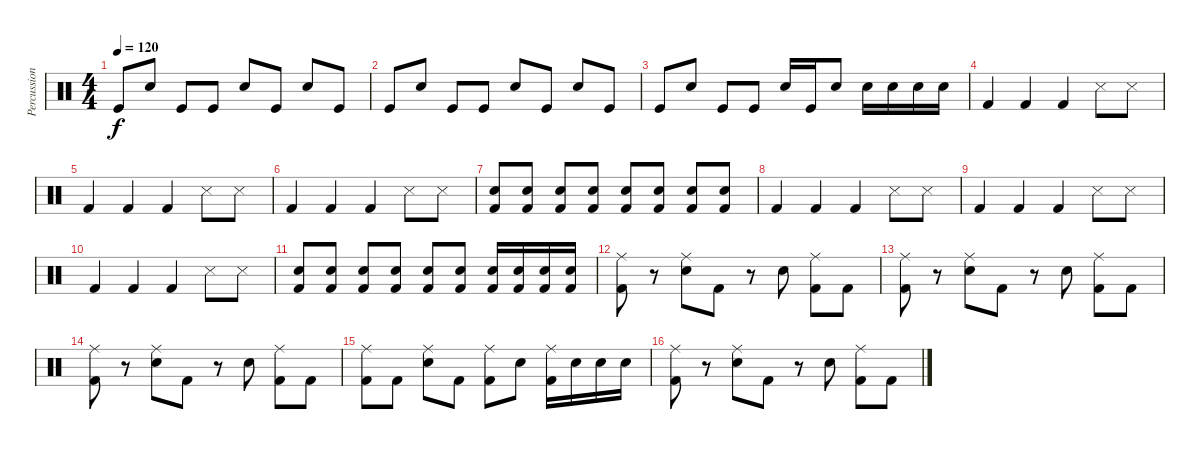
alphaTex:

\track ("Percussion" "Percussion") {instrument percussion}
\staff {score}
\articulation defaults
\ts (4 4)
\tempo 120
\clef neutral
\ks c "Kick (hit)".8{dy f} "Electric Snare (hit)".8 "Kick (hit)".8 "Kick (hit)".8 "Electric Snare (hit)".8 "Kick (hit)".8 "Electric Snare (hit)".8 "Kick (hit)".8
|
"Kick (hit)".8 "Electric Snare (hit)".8 "Kick (hit)".8 "Kick (hit)".8 "Electric Snare (hit)".8 "Kick (hit)".8 "Electric Snare (hit)".8 "Kick (hit)".8 |
"Kick (hit)".8 "Electric Snare (hit)".8 "Kick (hit)".8 "Kick (hit)".8 "Electric Snare (hit)".16 "Kick (hit)".16 "Electric Snare (hit)".8 "Electric Snare (hit)".16 "Electric Snare (hit)".16 "Electric Snare (hit)".16 "Electric Snare (hit)".16 |
"Kick (hit) 2".4 "Kick (hit) 2".4 "Kick (hit) 2".4 "Snare (side stick) 3".8 "Snare (side stick) 3".8 |
"Kick (hit) 2".4 "Kick (hit) 2".4 "Kick (hit) 2".4 "Snare (side stick) 3".8 "Snare (side stick) 3".8 |
"Kick (hit) 2".4 "Kick (hit) 2".4 "Kick (hit) 2".4 "Snare (side stick) 3".8 "Snare (side stick) 3".8 |
("Kick (hit) 2" "Electric Snare (hit)").8 ("Kick (hit) 2" "Electric Snare (hit)").8 ("Kick (hit) 2" "Electric Snare (hit)").8 ("Kick (hit) 2" "Electric Snare (hit)").8 ("Kick (hit) 2" "Electric Snare (hit)").8 ("Kick (hit) 2" "Electric Snare (hit)").8 ("Kick (hit) 2" "Electric Snare (hit)").8 ("Kick (hit) 2" "Electric Snare (hit)").8 |
"Kick (hit) 2".4 "Kick (hit) 2".4 "Kick (hit) 2".4 "Snare (side stick) 3".8 "Snare (side stick) 3".8 |
"Kick (hit) 2".4 "Kick (hit) 2".4 "Kick (hit) 2".4 "Snare (side stick) 3".8 "Snare (side stick) 3".8 |
"Kick (hit) 2".4 "Kick (hit) 2".4 "Kick (hit) 2".4 "Snare (side stick) 3".8 "Snare (side stick) 3".8 |
("Kick (hit) 2" "Electric Snare (hit)").8 ("Kick (hit) 2" "Electric Snare (hit)").8 ("Kick (hit) 2" "Electric Snare (hit)").8 ("Kick (hit) 2" "Electric Snare (hit)").8 ("Kick (hit) 2" "Electric Snare (hit)").8 ("Kick (hit) 2" "Electric Snare (hit)").8 ("Kick (hit) 2" "Electric Snare (hit)").16 ("Kick (hit) 2" "Electric Snare (hit)").16 ("Kick (hit) 2" "Electric Snare (hit)").16 ("Kick (hit) 2" "Electric Snare (hit)").16 |
("Kick (hit) 2" "Ride (middle)").8 r.8 ("Snare (hit) 2" "Ride (middle)").8 "Kick (hit) 2".8 r.8 "Snare (hit) 2".8 ("Kick (hit) 2" "Ride (middle)").8 "Kick (hit) 2".8 |
("Kick (hit) 2" "Ride (middle)").8 r.8 ("Snare (hit) 2" "Ride (middle)").8 "Kick (hit) 2".8 r.8 "Snare (hit) 2".8 ("Kick (hit) 2" "Ride (middle)").8 "Kick (hit) 2".8 |
("Kick (hit) 2" "Ride (middle)").8 r.8 ("Snare (hit) 2" "Ride (middle)").8 "Kick (hit) 2".8 r.8 "Snare (hit) 2".8 ("Kick (hit) 2" "Ride (middle)").8 "Kick (hit) 2".8 |
("Kick (hit) 2" "Ride (middle)").8 "Kick (hit) 2".8 ("Snare (hit) 2" "Ride (middle)").8 "Kick (hit) 2".8 ("Kick (hit) 2" "Ride (middle)").8 "Snare (hit) 2".8 ("Kick (hit) 2" "Ride (middle)").16 "Snare (hit) 2".16 "Snare (hit) 2".16 "Snare (hit) 2".16 |
("Kick (hit) 2" "Ride (middle)").8 r.8 ("Snare (hit) 2" "Ride (middle)").8 "Kick (hit) 2".8 r.8 "Snare (hit) 2".8 ("Kick (hit) 2" "Ride (middle)").8 "Kick (hit) 2".8
